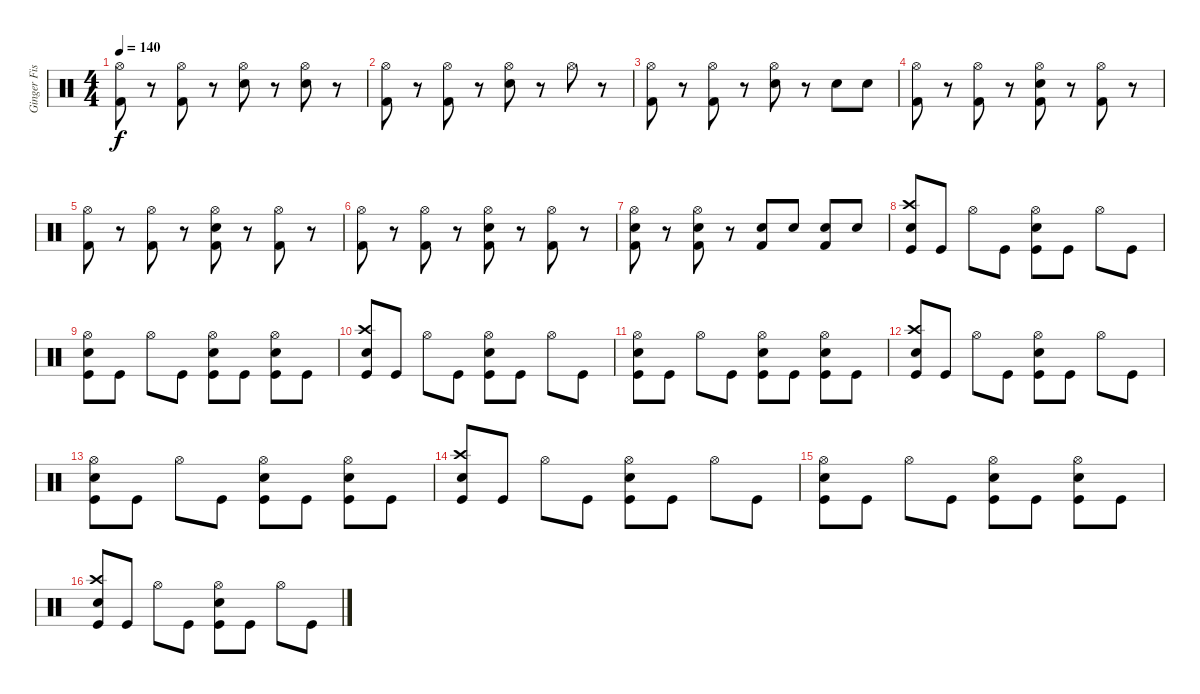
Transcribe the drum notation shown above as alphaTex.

\track ("Ginger Fish" "Ginger Fis") {instrument percussion}
\staff {score}
\articulation defaults
\ts (4 4)
\tempo 140
\clef neutral
\ks c
("Hi-Hat (open)" "Kick (hit) 2").8{dy f} r.8 ("Hi-Hat (open)" "Kick (hit) 2").8 r.8 ("Hi-Hat (open)" "Electric Snare (hit)").8 r.8 ("Hi-Hat (open)" "Electric Snare (hit)").8 r.8 |
("Hi-Hat (open)" "Kick (hit) 2").8 r.8 ("Hi-Hat (open)" "Kick (hit) 2").8 r.8 ("Hi-Hat (open)" "Electric Snare (hit)").8 r.8 "Hi-Hat (open)".8 r.8 |
("Hi-Hat (open)" "Kick (hit) 2").8 r.8 ("Hi-Hat (open)" "Kick (hit) 2").8 r.8 ("Hi-Hat (open)" "Electric Snare (hit)").8 r.8 "Electric Snare (hit)".8 "Electric Snare (hit)".8 |
("Hi-Hat (open)" "Kick (hit) 2").8 r.8 ("Hi-Hat (open)" "Kick (hit) 2").8 r.8 ("Hi-Hat (open)" "Electric Snare (hit)" "Kick (hit) 2").8 r.8 ("Hi-Hat (open)" "Kick (hit) 2").8 r.8 |
("Hi-Hat (open)" "Kick (hit) 2").8 r.8 ("Hi-Hat (open)" "Kick (hit) 2").8 r.8 ("Hi-Hat (open)" "Electric Snare (hit)" "Kick (hit) 2").8 r.8 ("Hi-Hat (open)" "Kick (hit) 2").8 r.8 |
("Hi-Hat (open)" "Kick (hit) 2").8 r.8 ("Hi-Hat (open)" "Kick (hit) 2").8 r.8 ("Hi-Hat (open)" "Electric Snare (hit)" "Kick (hit) 2").8 r.8 ("Hi-Hat (open)" "Kick (hit) 2").8 r.8 |
("Hi-Hat (open)" "Electric Snare (hit)" "Kick (hit) 2").8 r.8 ("Hi-Hat (open)" "Electric Snare (hit)" "Kick (hit) 2").8 r.8 ("Electric Snare (hit)" "Kick (hit) 2").8 "Electric Snare (hit)".8 ("Electric Snare (hit)" "Kick (hit) 2").8 "Electric Snare (hit)".8 |
("Crash high (hit)" "Electric Snare (hit)" "Kick (hit)").8 "Kick (hit)".8 "Hi-Hat (open)".8 "Kick (hit)".8 ("Hi-Hat (open)" "Electric Snare (hit)" "Kick (hit)").8 "Kick (hit)".8 "Hi-Hat (open)".8 "Kick (hit)".8 |
("Hi-Hat (open)" "Electric Snare (hit)" "Kick (hit)").8 "Kick (hit)".8 "Hi-Hat (open)".8 "Kick (hit)".8 ("Hi-Hat (open)" "Electric Snare (hit)" "Kick (hit)").8 "Kick (hit)".8 ("Hi-Hat (open)" "Electric Snare (hit)" "Kick (hit)").8 "Kick (hit)".8 |
("Crash high (hit)" "Electric Snare (hit)" "Kick (hit)").8 "Kick (hit)".8 "Hi-Hat (open)".8 "Kick (hit)".8 ("Hi-Hat (open)" "Electric Snare (hit)" "Kick (hit)").8 "Kick (hit)".8 "Hi-Hat (open)".8 "Kick (hit)".8 |
("Hi-Hat (open)" "Electric Snare (hit)" "Kick (hit)").8 "Kick (hit)".8 "Hi-Hat (open)".8 "Kick (hit)".8 ("Hi-Hat (open)" "Electric Snare (hit)" "Kick (hit)").8 "Kick (hit)".8 ("Hi-Hat (open)" "Electric Snare (hit)" "Kick (hit)").8 "Kick (hit)".8 |
("Crash high (hit)" "Electric Snare (hit)" "Kick (hit)").8 "Kick (hit)".8 "Hi-Hat (open)".8 "Kick (hit)".8 ("Hi-Hat (open)" "Electric Snare (hit)" "Kick (hit)").8 "Kick (hit)".8 "Hi-Hat (open)".8 "Kick (hit)".8 |
("Hi-Hat (open)" "Electric Snare (hit)" "Kick (hit)").8 "Kick (hit)".8 "Hi-Hat (open)".8 "Kick (hit)".8 ("Hi-Hat (open)" "Electric Snare (hit)" "Kick (hit)").8 "Kick (hit)".8 ("Hi-Hat (open)" "Electric Snare (hit)" "Kick (hit)").8 "Kick (hit)".8 |
("Crash high (hit)" "Electric Snare (hit)" "Kick (hit)").8 "Kick (hit)".8 "Hi-Hat (open)".8 "Kick (hit)".8 ("Hi-Hat (open)" "Electric Snare (hit)" "Kick (hit)").8 "Kick (hit)".8 "Hi-Hat (open)".8 "Kick (hit)".8 |
("Hi-Hat (open)" "Electric Snare (hit)" "Kick (hit)").8 "Kick (hit)".8 "Hi-Hat (open)".8 "Kick (hit)".8 ("Hi-Hat (open)" "Electric Snare (hit)" "Kick (hit)").8 "Kick (hit)".8 ("Hi-Hat (open)" "Electric Snare (hit)" "Kick (hit)").8 "Kick (hit)".8 |
("Crash high (hit)" "Electric Snare (hit)" "Kick (hit)").8 "Kick (hit)".8 "Hi-Hat (open)".8 "Kick (hit)".8 ("Hi-Hat (open)" "Electric Snare (hit)" "Kick (hit)").8 "Kick (hit)".8 "Hi-Hat (open)".8 "Kick (hit)".8
